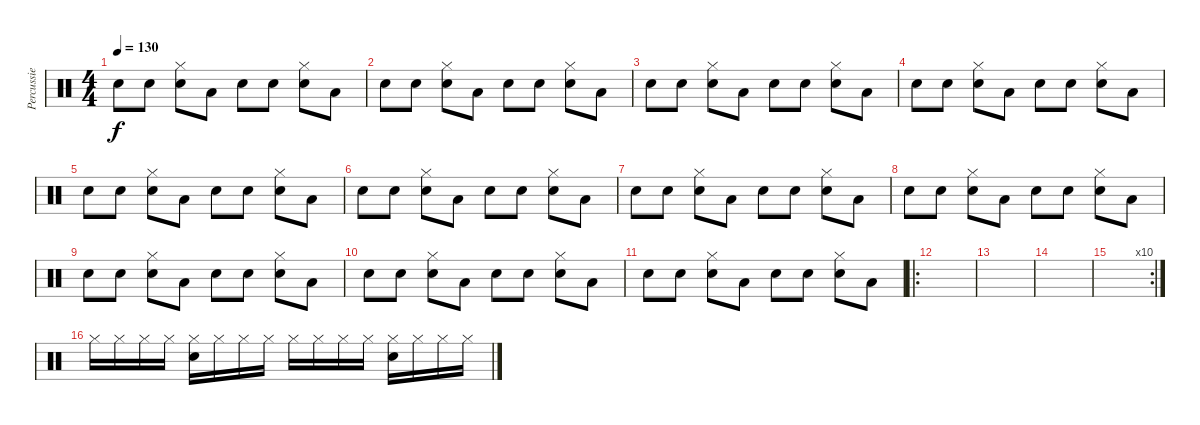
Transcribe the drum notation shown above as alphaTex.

\track ("Percussie" "Percussie") {instrument percussion}
\staff {score}
\articulation defaults
\ts (4 4)
\tempo 130
\clef neutral
\ks c "Electric Snare (hit)".8{dy f} "Electric Snare (hit)".8
("Hi-Hat (closed)" "Electric Snare (hit)").8 "Low Floor Tom (hit)".8 "Electric Snare (hit)".8 "Electric Snare (hit)".8 ("Hi-Hat (closed)" "Electric Snare (hit)").8 "Low Floor Tom (hit)".8 |
"Electric Snare (hit)".8 "Electric Snare (hit)".8 ("Hi-Hat (closed)" "Electric Snare (hit)").8 "Low Floor Tom (hit)".8 "Electric Snare (hit)".8 "Electric Snare (hit)".8 ("Hi-Hat (closed)" "Electric Snare (hit)").8 "Low Floor Tom (hit)".8 |
"Electric Snare (hit)".8 "Electric Snare (hit)".8 ("Hi-Hat (closed)" "Electric Snare (hit)").8 "Low Floor Tom (hit)".8 "Electric Snare (hit)".8 "Electric Snare (hit)".8 ("Hi-Hat (closed)" "Electric Snare (hit)").8 "Low Floor Tom (hit)".8 |
"Electric Snare (hit)".8 "Electric Snare (hit)".8 ("Hi-Hat (closed)" "Electric Snare (hit)").8 "Low Floor Tom (hit)".8 "Electric Snare (hit)".8 "Electric Snare (hit)".8 ("Hi-Hat (closed)" "Electric Snare (hit)").8 "Low Floor Tom (hit)".8 |
"Electric Snare (hit)".8 "Electric Snare (hit)".8 ("Hi-Hat (closed)" "Electric Snare (hit)").8 "Low Floor Tom (hit)".8 "Electric Snare (hit)".8 "Electric Snare (hit)".8 ("Hi-Hat (closed)" "Electric Snare (hit)").8 "Low Floor Tom (hit)".8 |
"Electric Snare (hit)".8 "Electric Snare (hit)".8 ("Hi-Hat (closed)" "Electric Snare (hit)").8 "Low Floor Tom (hit)".8 "Electric Snare (hit)".8 "Electric Snare (hit)".8 ("Hi-Hat (closed)" "Electric Snare (hit)").8 "Low Floor Tom (hit)".8 |
"Electric Snare (hit)".8 "Electric Snare (hit)".8 ("Hi-Hat (closed)" "Electric Snare (hit)").8 "Low Floor Tom (hit)".8 "Electric Snare (hit)".8 "Electric Snare (hit)".8 ("Hi-Hat (closed)" "Electric Snare (hit)").8 "Low Floor Tom (hit)".8 |
"Electric Snare (hit)".8 "Electric Snare (hit)".8 ("Hi-Hat (closed)" "Electric Snare (hit)").8 "Low Floor Tom (hit)".8 "Electric Snare (hit)".8 "Electric Snare (hit)".8 ("Hi-Hat (closed)" "Electric Snare (hit)").8 "Low Floor Tom (hit)".8 |
"Electric Snare (hit)".8 "Electric Snare (hit)".8 ("Hi-Hat (closed)" "Electric Snare (hit)").8 "Low Floor Tom (hit)".8 "Electric Snare (hit)".8 "Electric Snare (hit)".8 ("Hi-Hat (closed)" "Electric Snare (hit)").8 "Low Floor Tom (hit)".8 |
"Electric Snare (hit)".8 "Electric Snare (hit)".8 ("Hi-Hat (closed)" "Electric Snare (hit)").8 "Low Floor Tom (hit)".8 "Electric Snare (hit)".8 "Electric Snare (hit)".8 ("Hi-Hat (closed)" "Electric Snare (hit)").8 "Low Floor Tom (hit)".8 |
"Electric Snare (hit)".8 "Electric Snare (hit)".8 ("Hi-Hat (closed)" "Electric Snare (hit)").8 "Low Floor Tom (hit)".8 "Electric Snare (hit)".8 "Electric Snare (hit)".8 ("Hi-Hat (closed)" "Electric Snare (hit)").8 "Low Floor Tom (hit)".8 |
\ro
|
|
|
\rc 10
|
"Hi-Hat (closed)".16 "Hi-Hat (closed)".16 "Hi-Hat (closed)".16 "Hi-Hat (closed)".16 ("Hi-Hat (closed)" "Electric Snare (hit)").16 "Hi-Hat (closed)".16 "Hi-Hat (closed)".16 "Hi-Hat (closed)".16 "Hi-Hat (closed)".16 "Hi-Hat (closed)".16 "Hi-Hat (closed)".16 "Hi-Hat (closed)".16 ("Hi-Hat (closed)" "Electric Snare (hit)").16 "Hi-Hat (closed)".16 "Hi-Hat (closed)".16 "Hi-Hat (closed)".16
